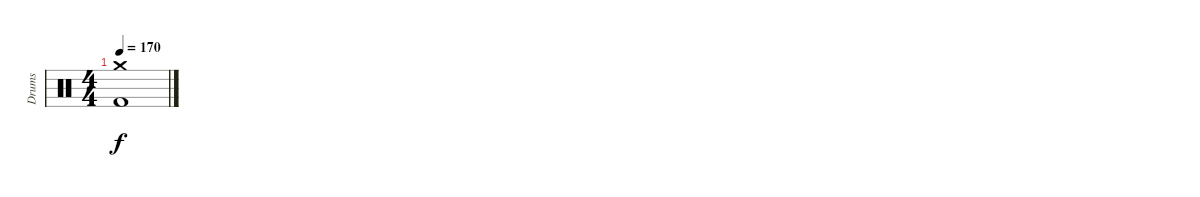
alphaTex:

\track ("Drums" "Drums") {instrument percussion}
\staff {score}
\articulation defaults
\ts (4 4)
\tempo 170
\clef neutral
\ks c
("Crash medium (hit)" "Kick (hit) 2").1{dy f}
